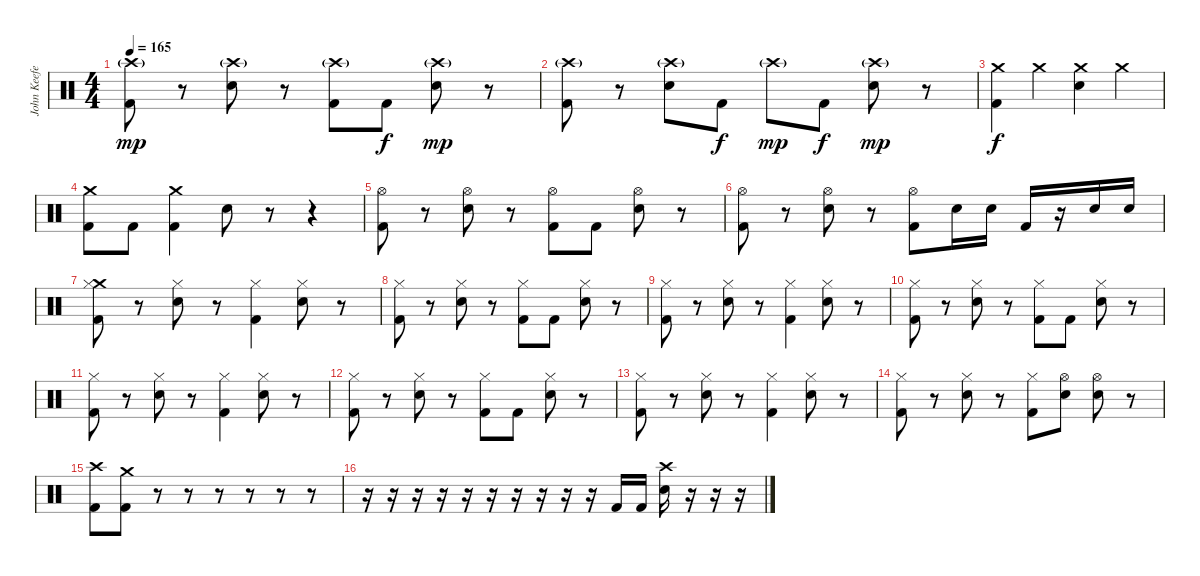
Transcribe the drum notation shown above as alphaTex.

\track ("John Keefe (Drums)" "John Keefe") {instrument percussion}
\staff {score}
\articulation defaults
\ts (4 4)
\tempo 165
\clef neutral
\ks c
("Crash high (hit)"{g} "Kick (hit) 2").8{dy mp} r.8 ("Crash high (hit)"{g} "Electric Snare (hit)").8 r.8 ("Crash high (hit)"{g} "Kick (hit) 2").8 "Kick (hit) 2".8{dy f} ("Crash high (hit)"{g} "Electric Snare (hit)").8{dy mp} r.8 |
("Crash high (hit)"{g} "Kick (hit) 2").8 r.8 ("Crash high (hit)"{g} "Electric Snare (hit)").8 "Kick (hit) 2".8{dy f} "Crash high (hit)"{g}.8{dy mp} "Kick (hit) 2".8{dy f} ("Crash high (hit)"{g} "Electric Snare (hit)").8{dy mp} r.8 |
("Crash medium (hit)" "Kick (hit) 2").4{dy f} "Crash medium (hit)".4 ("Crash medium (hit)" "Electric Snare (hit)").4 "Crash medium (hit)".4 |
("Crash medium (hit)" "Kick (hit) 2").8 "Kick (hit) 2".8 ("Crash medium (hit)" "Kick (hit) 2").4 "Electric Snare (hit)".8 r.8 r.4 |
("Hi-Hat (open)" "Kick (hit) 2").8 r.8 ("Hi-Hat (open)" "Electric Snare (hit)").8 r.8 ("Hi-Hat (open)" "Kick (hit) 2").8 "Kick (hit) 2".8 ("Hi-Hat (open)" "Electric Snare (hit)").8 r.8 |
("Hi-Hat (open)" "Kick (hit) 2").8 r.8 ("Hi-Hat (open)" "Electric Snare (hit)").8 r.8 ("Hi-Hat (open)" "Kick (hit) 2").8 "Electric Snare (hit)".16 "Electric Snare (hit)".16 "Kick (hit) 2".16 r.16 "Electric Snare (hit)".16 "Electric Snare (hit)".16 |
("Crash medium (hit)" "Hi-Hat (closed)" "Kick (hit) 2").8 r.8 ("Hi-Hat (closed)" "Electric Snare (hit)").8 r.8 ("Hi-Hat (closed)" "Kick (hit) 2").4 ("Hi-Hat (closed)" "Electric Snare (hit)").8 r.8 |
("Hi-Hat (closed)" "Kick (hit) 2").8 r.8 ("Hi-Hat (closed)" "Electric Snare (hit)").8 r.8 ("Hi-Hat (closed)" "Kick (hit) 2").8 "Kick (hit) 2".8 ("Hi-Hat (closed)" "Electric Snare (hit)").8 r.8 |
("Hi-Hat (closed)" "Kick (hit) 2").8 r.8 ("Hi-Hat (closed)" "Electric Snare (hit)").8 r.8 ("Hi-Hat (closed)" "Kick (hit) 2").4 ("Hi-Hat (closed)" "Electric Snare (hit)").8 r.8 |
("Hi-Hat (closed)" "Kick (hit) 2").8 r.8 ("Hi-Hat (closed)" "Electric Snare (hit)").8 r.8 ("Hi-Hat (closed)" "Kick (hit) 2").8 "Kick (hit) 2".8 ("Hi-Hat (closed)" "Electric Snare (hit)").8 r.8 |
("Hi-Hat (closed)" "Kick (hit) 2").8 r.8 ("Hi-Hat (closed)" "Electric Snare (hit)").8 r.8 ("Hi-Hat (closed)" "Kick (hit) 2").4 ("Hi-Hat (closed)" "Electric Snare (hit)").8 r.8 |
("Hi-Hat (closed)" "Kick (hit) 2").8 r.8 ("Hi-Hat (closed)" "Electric Snare (hit)").8 r.8 ("Hi-Hat (closed)" "Kick (hit) 2").8 "Kick (hit) 2".8 ("Hi-Hat (closed)" "Electric Snare (hit)").8 r.8 |
("Hi-Hat (closed)" "Kick (hit) 2").8 r.8 ("Hi-Hat (closed)" "Electric Snare (hit)").8 r.8 ("Hi-Hat (closed)" "Kick (hit) 2").4 ("Hi-Hat (closed)" "Electric Snare (hit)").8 r.8 |
("Hi-Hat (closed)" "Kick (hit) 2").8 r.8 ("Hi-Hat (closed)" "Electric Snare (hit)").8 r.8 ("Hi-Hat (closed)" "Kick (hit) 2").8 ("Hi-Hat (open)" "Electric Snare (hit)").8 ("Hi-Hat (open)" "Electric Snare (hit)").8 r.8 |
("Crash high (hit)" "Kick (hit) 2").8 ("Crash medium (hit)" "Kick (hit) 2").8 r.8 r.8 r.8 r.8 r.8 r.8 |
r.16 r.16 r.16 r.16 r.16 r.16 r.16 r.16 r.16 r.16 "Kick (hit) 2".16 "Kick (hit) 2".16 ("Crash high (hit)" "Electric Snare (hit)").16 r.16 r.16 r.16
